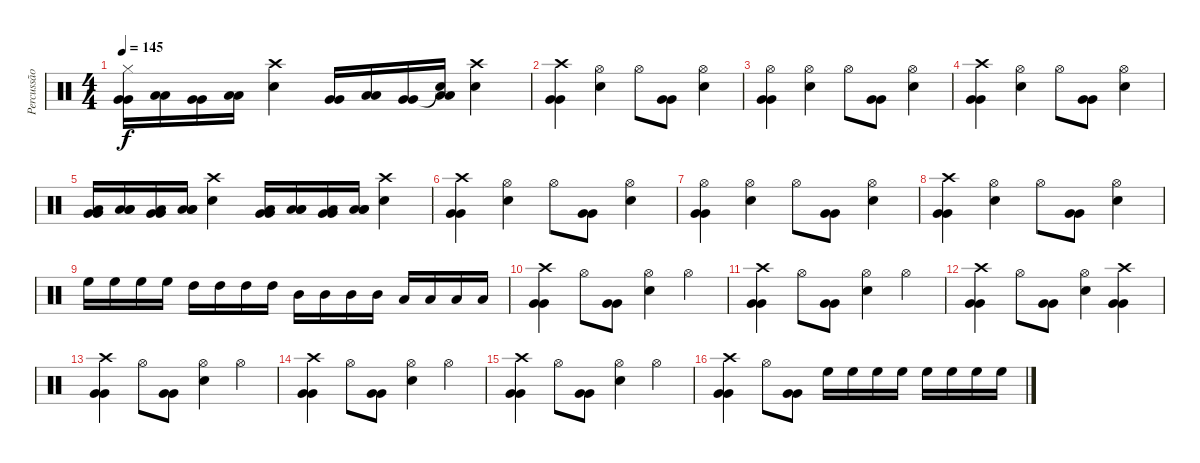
\track ("Percussão" "Percussão") {instrument percussion}
\staff {score}
\articulation defaults
\ts (4 4)
\tempo 145
\clef neutral
\ks c
("Hi-Hat (closed)" "Very Low Tom (hit)" "Very Low Tom (hit)").16{dy f} ("Low Floor Tom (hit)" "Low Floor Tom (hit)").16 ("Very Low Tom (hit)" "Very Low Tom (hit)").16 ("Low Floor Tom (hit)" "Low Floor Tom (hit)").16 ("Crash high (hit)" "Electric Snare (hit)").4 ("Very Low Tom (hit)" "Very Low Tom (hit)").16 ("Low Floor Tom (hit)" "Low Floor Tom (hit)").16 ("Very Low Tom (hit)" "Very Low Tom (hit)").16 ("Snare (hit)"{t} "Low Floor Tom (hit)" "Low Floor Tom (hit)").16 ("Crash high (hit)" "Electric Snare (hit)").4 |
("Crash high (hit)" "Very Low Tom (hit)" "Very Low Tom (hit)").4 ("Hi-Hat (open)" "Electric Snare (hit)").4 "Hi-Hat (open)".8 ("Very Low Tom (hit)" "Very Low Tom (hit)").8 ("Hi-Hat (open)" "Electric Snare (hit)").4 |
("Hi-Hat (open)" "Very Low Tom (hit)" "Very Low Tom (hit)").4 ("Hi-Hat (open)" "Electric Snare (hit)").4 "Hi-Hat (open)".8 ("Very Low Tom (hit)" "Very Low Tom (hit)").8 ("Hi-Hat (open)" "Electric Snare (hit)").4 |
("Crash high (hit)" "Very Low Tom (hit)" "Very Low Tom (hit)").4 ("Hi-Hat (open)" "Electric Snare (hit)").4 "Hi-Hat (open)".8 ("Very Low Tom (hit)" "Very Low Tom (hit)").8 ("Hi-Hat (open)" "Electric Snare (hit)").4 |
("Low Tom (hit)" "Very Low Tom (hit)" "Very Low Tom (hit)").16 ("Low Tom (hit)" "Low Floor Tom (hit)" "Low Floor Tom (hit)").16 ("Low Tom (hit)" "Very Low Tom (hit)" "Very Low Tom (hit)").16 ("Low Tom (hit)" "Low Floor Tom (hit)" "Low Floor Tom (hit)").16 ("Crash high (hit)" "Electric Snare (hit)").4 ("Low Tom (hit)" "Very Low Tom (hit)" "Very Low Tom (hit)").16 ("Low Tom (hit)" "Low Floor Tom (hit)" "Low Floor Tom (hit)").16 ("Low Tom (hit)" "Very Low Tom (hit)" "Very Low Tom (hit)").16 ("Low Tom (hit)" "Low Floor Tom (hit)" "Low Floor Tom (hit)").16 ("Crash high (hit)" "Electric Snare (hit)").4 |
("Crash high (hit)" "Very Low Tom (hit)" "Very Low Tom (hit)").4 ("Hi-Hat (open)" "Electric Snare (hit)").4 "Hi-Hat (open)".8 ("Very Low Tom (hit)" "Very Low Tom (hit)").8 ("Hi-Hat (open)" "Electric Snare (hit)").4 |
("Hi-Hat (open)" "Very Low Tom (hit)" "Very Low Tom (hit)").4 ("Hi-Hat (open)" "Electric Snare (hit)").4 "Hi-Hat (open)".8 ("Very Low Tom (hit)" "Very Low Tom (hit)").8 ("Hi-Hat (open)" "Electric Snare (hit)").4 |
("Crash high (hit)" "Very Low Tom (hit)" "Very Low Tom (hit)").4 ("Hi-Hat (open)" "Electric Snare (hit)").4 "Hi-Hat (open)".8 ("Very Low Tom (hit)" "Very Low Tom (hit)").8 ("Hi-Hat (open)" "Electric Snare (hit)").4 |
"High Floor Tom (hit)".16 "High Floor Tom (hit)".16 "High Floor Tom (hit)".16 "High Floor Tom (hit)".16 "High Tom (hit)".16 "High Tom (hit)".16 "High Tom (hit)".16 "High Tom (hit)".16 "Mid Tom (hit)".16 "Mid Tom (hit)".16 "Mid Tom (hit)".16 "Mid Tom (hit)".16 "Low Tom (hit)".16 "Low Tom (hit)".16 "Low Tom (hit)".16 "Low Tom (hit)".16 |
("Crash high (hit)" "Very Low Tom (hit)" "Very Low Tom (hit)").4 "Hi-Hat (open)".8 ("Very Low Tom (hit)" "Very Low Tom (hit)").8 ("Hi-Hat (open)" "Electric Snare (hit)").4 "Hi-Hat (open)".4 |
("Crash high (hit)" "Very Low Tom (hit)" "Very Low Tom (hit)").4 "Hi-Hat (open)".8 ("Very Low Tom (hit)" "Very Low Tom (hit)").8 ("Hi-Hat (open)" "Electric Snare (hit)").4 "Hi-Hat (open)".4 |
("Crash high (hit)" "Very Low Tom (hit)" "Very Low Tom (hit)").4 "Hi-Hat (open)".8 ("Very Low Tom (hit)" "Very Low Tom (hit)").8 ("Hi-Hat (open)" "Electric Snare (hit)").4 ("Crash high (hit)" "Very Low Tom (hit)" "Very Low Tom (hit)").4 |
("Crash high (hit)" "Very Low Tom (hit)" "Very Low Tom (hit)").4 "Hi-Hat (open)".8 ("Very Low Tom (hit)" "Very Low Tom (hit)").8 ("Hi-Hat (open)" "Electric Snare (hit)").4 "Hi-Hat (open)".4 |
("Crash high (hit)" "Very Low Tom (hit)" "Very Low Tom (hit)").4 "Hi-Hat (open)".8 ("Very Low Tom (hit)" "Very Low Tom (hit)").8 ("Hi-Hat (open)" "Electric Snare (hit)").4 "Hi-Hat (open)".4 |
("Crash high (hit)" "Very Low Tom (hit)" "Very Low Tom (hit)").4 "Hi-Hat (open)".8 ("Very Low Tom (hit)" "Very Low Tom (hit)").8 ("Hi-Hat (open)" "Electric Snare (hit)").4 "Hi-Hat (open)".4 |
("Crash high (hit)" "Very Low Tom (hit)" "Very Low Tom (hit)").4 "Hi-Hat (open)".8 ("Very Low Tom (hit)" "Very Low Tom (hit)").8 "High Floor Tom (hit)".16 "High Floor Tom (hit)".16 "High Floor Tom (hit)".16 "High Floor Tom (hit)".16 "High Floor Tom (hit)".16 "High Floor Tom (hit)".16 "High Floor Tom (hit)".16 "High Floor Tom (hit)".16
